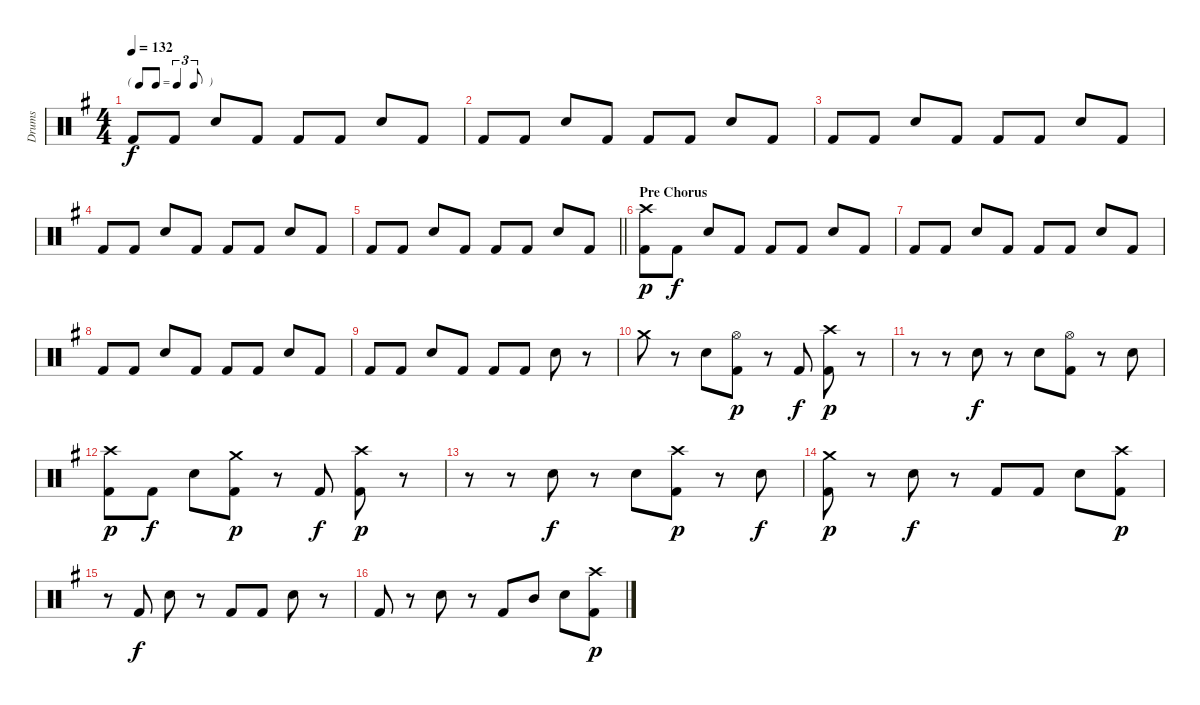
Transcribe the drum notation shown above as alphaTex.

\track ("Drums" "Drums") {instrument percussion}
\staff {score}
\articulation defaults
\ts (4 4)
\tf triplet8th
\tempo 132
\clef neutral
\ks g "Kick (hit) 2".8{dy f} "Kick (hit) 2".8 "Electric Snare (hit)".8 "Kick (hit) 2".8 "Kick (hit) 2".8 "Kick (hit) 2".8 "Electric Snare (hit)".8 "Kick (hit) 2".8
|
"Kick (hit) 2".8 "Kick (hit) 2".8 "Electric Snare (hit)".8 "Kick (hit) 2".8 "Kick (hit) 2".8 "Kick (hit) 2".8 "Electric Snare (hit)".8 "Kick (hit) 2".8 |
"Kick (hit) 2".8 "Kick (hit) 2".8 "Electric Snare (hit)".8 "Kick (hit) 2".8 "Kick (hit) 2".8 "Kick (hit) 2".8 "Electric Snare (hit)".8 "Kick (hit) 2".8 |
"Kick (hit) 2".8 "Kick (hit) 2".8 "Electric Snare (hit)".8 "Kick (hit) 2".8 "Kick (hit) 2".8 "Kick (hit) 2".8 "Electric Snare (hit)".8 "Kick (hit) 2".8 |
\barLineRight lightlight "Kick (hit) 2".8 "Kick (hit) 2".8 "Electric Snare (hit)".8 "Kick (hit) 2".8 "Kick (hit) 2".8 "Kick (hit) 2".8 "Electric Snare (hit)".8 "Kick (hit) 2".8
|
\section ("" "Pre Chorus")
("Crash high (hit)" "Kick (hit) 2").8{dy p} "Kick (hit) 2".8{dy f} "Electric Snare (hit)".8 "Kick (hit) 2".8 "Kick (hit) 2".8 "Kick (hit) 2".8 "Electric Snare (hit)".8 "Kick (hit) 2".8 |
"Kick (hit) 2".8 "Kick (hit) 2".8 "Electric Snare (hit)".8 "Kick (hit) 2".8 "Kick (hit) 2".8 "Kick (hit) 2".8 "Electric Snare (hit)".8 "Kick (hit) 2".8 |
"Kick (hit) 2".8 "Kick (hit) 2".8 "Electric Snare (hit)".8 "Kick (hit) 2".8 "Kick (hit) 2".8 "Kick (hit) 2".8 "Electric Snare (hit)".8 "Kick (hit) 2".8 |
"Kick (hit) 2".8 "Kick (hit) 2".8 "Electric Snare (hit)".8 "Kick (hit) 2".8 "Kick (hit) 2".8 "Kick (hit) 2".8 "Electric Snare (hit)".8 r.8 |
"Crash medium (hit)".8 r.8 "Electric Snare (hit)".8 ("Hi-Hat (open)" "Kick (hit) 2").8{dy p} r.8 "Kick (hit) 2".8{dy f} ("Crash high (hit)" "Kick (hit) 2").8{dy p} r.8 |
r.8 r.8 "Electric Snare (hit)".8{dy f} r.8 "Electric Snare (hit)".8 ("Hi-Hat (open)" "Kick (hit) 2").8 r.8 "Electric Snare (hit)".8 |
("Crash high (hit)" "Kick (hit) 2").8{dy p} "Kick (hit) 2".8{dy f} "Electric Snare (hit)".8 ("Crash medium (hit)" "Kick (hit) 2").8{dy p} r.8 "Kick (hit) 2".8{dy f} ("Crash high (hit)" "Kick (hit) 2").8{dy p} r.8 |
r.8 r.8 "Electric Snare (hit)".8{dy f} r.8 "Electric Snare (hit)".8 ("Crash high (hit)" "Kick (hit) 2").8{dy p} r.8 "Electric Snare (hit)".8{dy f} |
("Crash medium (hit)" "Kick (hit) 2").8{dy p} r.8 "Electric Snare (hit)".8{dy f} r.8 "Kick (hit) 2".8 "Kick (hit) 2".8 "Electric Snare (hit)".8 ("Crash high (hit)" "Kick (hit) 2").8{dy p} |
r.8 "Kick (hit) 2".8{dy f} "Electric Snare (hit)".8 r.8 "Kick (hit) 2".8 "Kick (hit) 2".8 "Electric Snare (hit)".8 r.8 |
"Kick (hit) 2".8 r.8 "Electric Snare (hit)".8 r.8 "Kick (hit) 2".8 "Mid Tom (hit)".8 "Electric Snare (hit)".8 ("Crash high (hit)" "Kick (hit) 2").8{dy p}
